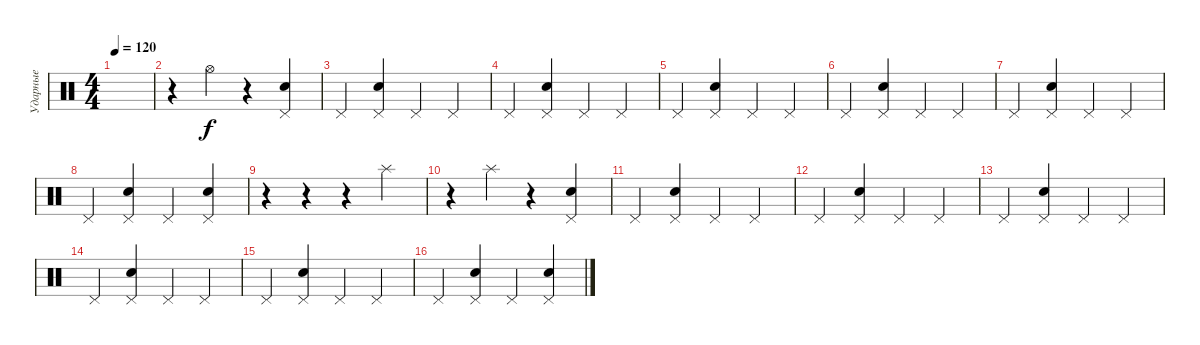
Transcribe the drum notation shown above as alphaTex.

\track ("Ударные" "Ударные") {instrument percussion}
\staff {score}
\articulation defaults
\ts (4 4)
\tempo 120
\clef neutral
\ks c
|
r.4 "Hi-Hat (open)".4 r.4 ("Snare (hit) 2" "Pedal Hi-Hat (hit)").4 |
"Pedal Hi-Hat (hit)".4 ("Snare (hit) 2" "Pedal Hi-Hat (hit)").4 "Pedal Hi-Hat (hit)".4 "Pedal Hi-Hat (hit)".4 |
"Pedal Hi-Hat (hit)".4 ("Snare (hit) 2" "Pedal Hi-Hat (hit)").4 "Pedal Hi-Hat (hit)".4 "Pedal Hi-Hat (hit)".4 |
"Pedal Hi-Hat (hit)".4 ("Snare (hit) 2" "Pedal Hi-Hat (hit)").4 "Pedal Hi-Hat (hit)".4 "Pedal Hi-Hat (hit)".4 |
"Pedal Hi-Hat (hit)".4 ("Snare (hit) 2" "Pedal Hi-Hat (hit)").4 "Pedal Hi-Hat (hit)".4 "Pedal Hi-Hat (hit)".4 |
"Pedal Hi-Hat (hit)".4 ("Snare (hit) 2" "Pedal Hi-Hat (hit)").4 "Pedal Hi-Hat (hit)".4 "Pedal Hi-Hat (hit)".4 |
"Pedal Hi-Hat (hit)".4 ("Snare (hit) 2" "Pedal Hi-Hat (hit)").4 "Pedal Hi-Hat (hit)".4 ("Snare (hit) 2" "Pedal Hi-Hat (hit)").4 |
r.4 r.4 r.4 "Splash (hit)".4 |
r.4 "Splash (hit)".4 r.4 ("Snare (hit) 2" "Pedal Hi-Hat (hit)").4 |
"Pedal Hi-Hat (hit)".4 ("Snare (hit) 2" "Pedal Hi-Hat (hit)").4 "Pedal Hi-Hat (hit)".4 "Pedal Hi-Hat (hit)".4 |
"Pedal Hi-Hat (hit)".4 ("Snare (hit) 2" "Pedal Hi-Hat (hit)").4 "Pedal Hi-Hat (hit)".4 "Pedal Hi-Hat (hit)".4 |
"Pedal Hi-Hat (hit)".4 ("Snare (hit) 2" "Pedal Hi-Hat (hit)").4 "Pedal Hi-Hat (hit)".4 "Pedal Hi-Hat (hit)".4 |
"Pedal Hi-Hat (hit)".4 ("Snare (hit) 2" "Pedal Hi-Hat (hit)").4 "Pedal Hi-Hat (hit)".4 "Pedal Hi-Hat (hit)".4 |
"Pedal Hi-Hat (hit)".4 ("Snare (hit) 2" "Pedal Hi-Hat (hit)").4 "Pedal Hi-Hat (hit)".4 "Pedal Hi-Hat (hit)".4 |
"Pedal Hi-Hat (hit)".4 ("Snare (hit) 2" "Pedal Hi-Hat (hit)").4 "Pedal Hi-Hat (hit)".4 ("Snare (hit) 2" "Pedal Hi-Hat (hit)").4
